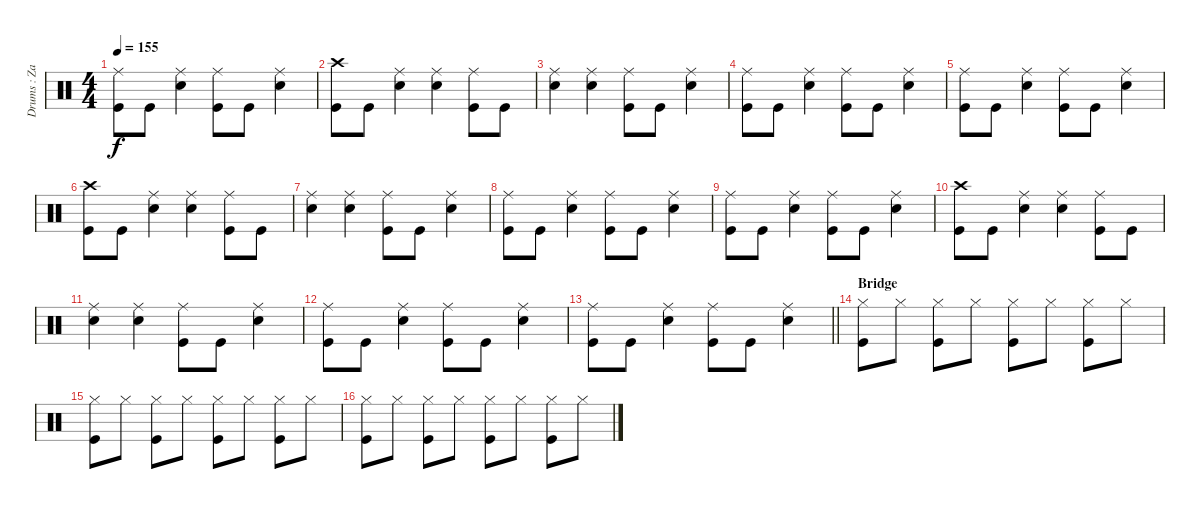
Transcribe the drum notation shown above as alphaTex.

\track ("Drums : Zach Lind" "Drums : Za") {instrument percussion}
\staff {score}
\articulation defaults
\ts (4 4)
\tempo 155
\clef neutral
\ks c
("Ride (middle)" "Kick (hit)").8{dy f} "Kick (hit)".8 ("Ride (middle)" "Snare (hit) 2").4 ("Ride (middle)" "Kick (hit)").8 "Kick (hit)".8 ("Ride (middle)" "Snare (hit) 2").4 |
("Crash high (hit)" "Kick (hit)").8 "Kick (hit)".8 ("Ride (middle)" "Snare (hit) 2").4 ("Ride (middle)" "Snare (hit) 2").4 ("Ride (middle)" "Kick (hit)").8 "Kick (hit)".8 |
("Ride (middle)" "Snare (hit) 2").4 ("Ride (middle)" "Snare (hit) 2").4 ("Ride (middle)" "Kick (hit)").8 "Kick (hit)".8 ("Ride (middle)" "Snare (hit) 2").4 |
("Ride (middle)" "Kick (hit)").8 "Kick (hit)".8 ("Ride (middle)" "Snare (hit) 2").4 ("Ride (middle)" "Kick (hit)").8 "Kick (hit)".8 ("Ride (middle)" "Snare (hit) 2").4 |
("Ride (middle)" "Kick (hit)").8 "Kick (hit)".8 ("Ride (middle)" "Snare (hit) 2").4 ("Ride (middle)" "Kick (hit)").8 "Kick (hit)".8 ("Ride (middle)" "Snare (hit) 2").4 |
("Crash high (hit)" "Kick (hit)").8 "Kick (hit)".8 ("Ride (middle)" "Snare (hit) 2").4 ("Ride (middle)" "Snare (hit) 2").4 ("Ride (middle)" "Kick (hit)").8 "Kick (hit)".8 |
("Ride (middle)" "Snare (hit) 2").4 ("Ride (middle)" "Snare (hit) 2").4 ("Ride (middle)" "Kick (hit)").8 "Kick (hit)".8 ("Ride (middle)" "Snare (hit) 2").4 |
("Ride (middle)" "Kick (hit)").8 "Kick (hit)".8 ("Ride (middle)" "Snare (hit) 2").4 ("Ride (middle)" "Kick (hit)").8 "Kick (hit)".8 ("Ride (middle)" "Snare (hit) 2").4 |
("Ride (middle)" "Kick (hit)").8 "Kick (hit)".8 ("Ride (middle)" "Snare (hit) 2").4 ("Ride (middle)" "Kick (hit)").8 "Kick (hit)".8 ("Ride (middle)" "Snare (hit) 2").4 |
("Crash high (hit)" "Kick (hit)").8 "Kick (hit)".8 ("Ride (middle)" "Snare (hit) 2").4 ("Ride (middle)" "Snare (hit) 2").4 ("Ride (middle)" "Kick (hit)").8 "Kick (hit)".8 |
("Ride (middle)" "Snare (hit) 2").4 ("Ride (middle)" "Snare (hit) 2").4 ("Ride (middle)" "Kick (hit)").8 "Kick (hit)".8 ("Ride (middle)" "Snare (hit) 2").4 |
("Ride (middle)" "Kick (hit)").8 "Kick (hit)".8 ("Ride (middle)" "Snare (hit) 2").4 ("Ride (middle)" "Kick (hit)").8 "Kick (hit)".8 ("Ride (middle)" "Snare (hit) 2").4 |
\barLineRight lightlight
("Ride (middle)" "Kick (hit)").8 "Kick (hit)".8 ("Ride (middle)" "Snare (hit) 2").4 ("Ride (middle)" "Kick (hit)").8 "Kick (hit)".8 ("Ride (middle)" "Snare (hit) 2").4 |
\section ("" "Bridge")
("Hi-Hat (closed)" "Kick (hit)").8 "Hi-Hat (closed)".8 ("Hi-Hat (closed)" "Kick (hit)").8 "Hi-Hat (closed)".8 ("Hi-Hat (closed)" "Kick (hit)").8 "Hi-Hat (closed)".8 ("Hi-Hat (closed)" "Kick (hit)").8 "Hi-Hat (closed)".8 |
("Hi-Hat (closed)" "Kick (hit)").8 "Hi-Hat (closed)".8 ("Hi-Hat (closed)" "Kick (hit)").8 "Hi-Hat (closed)".8 ("Hi-Hat (closed)" "Kick (hit)").8 "Hi-Hat (closed)".8 ("Hi-Hat (closed)" "Kick (hit)").8 "Hi-Hat (closed)".8 |
("Hi-Hat (closed)" "Kick (hit)").8 "Hi-Hat (closed)".8 ("Hi-Hat (closed)" "Kick (hit)").8 "Hi-Hat (closed)".8 ("Hi-Hat (closed)" "Kick (hit)").8 "Hi-Hat (closed)".8 ("Hi-Hat (closed)" "Kick (hit)").8 "Hi-Hat (closed)".8
